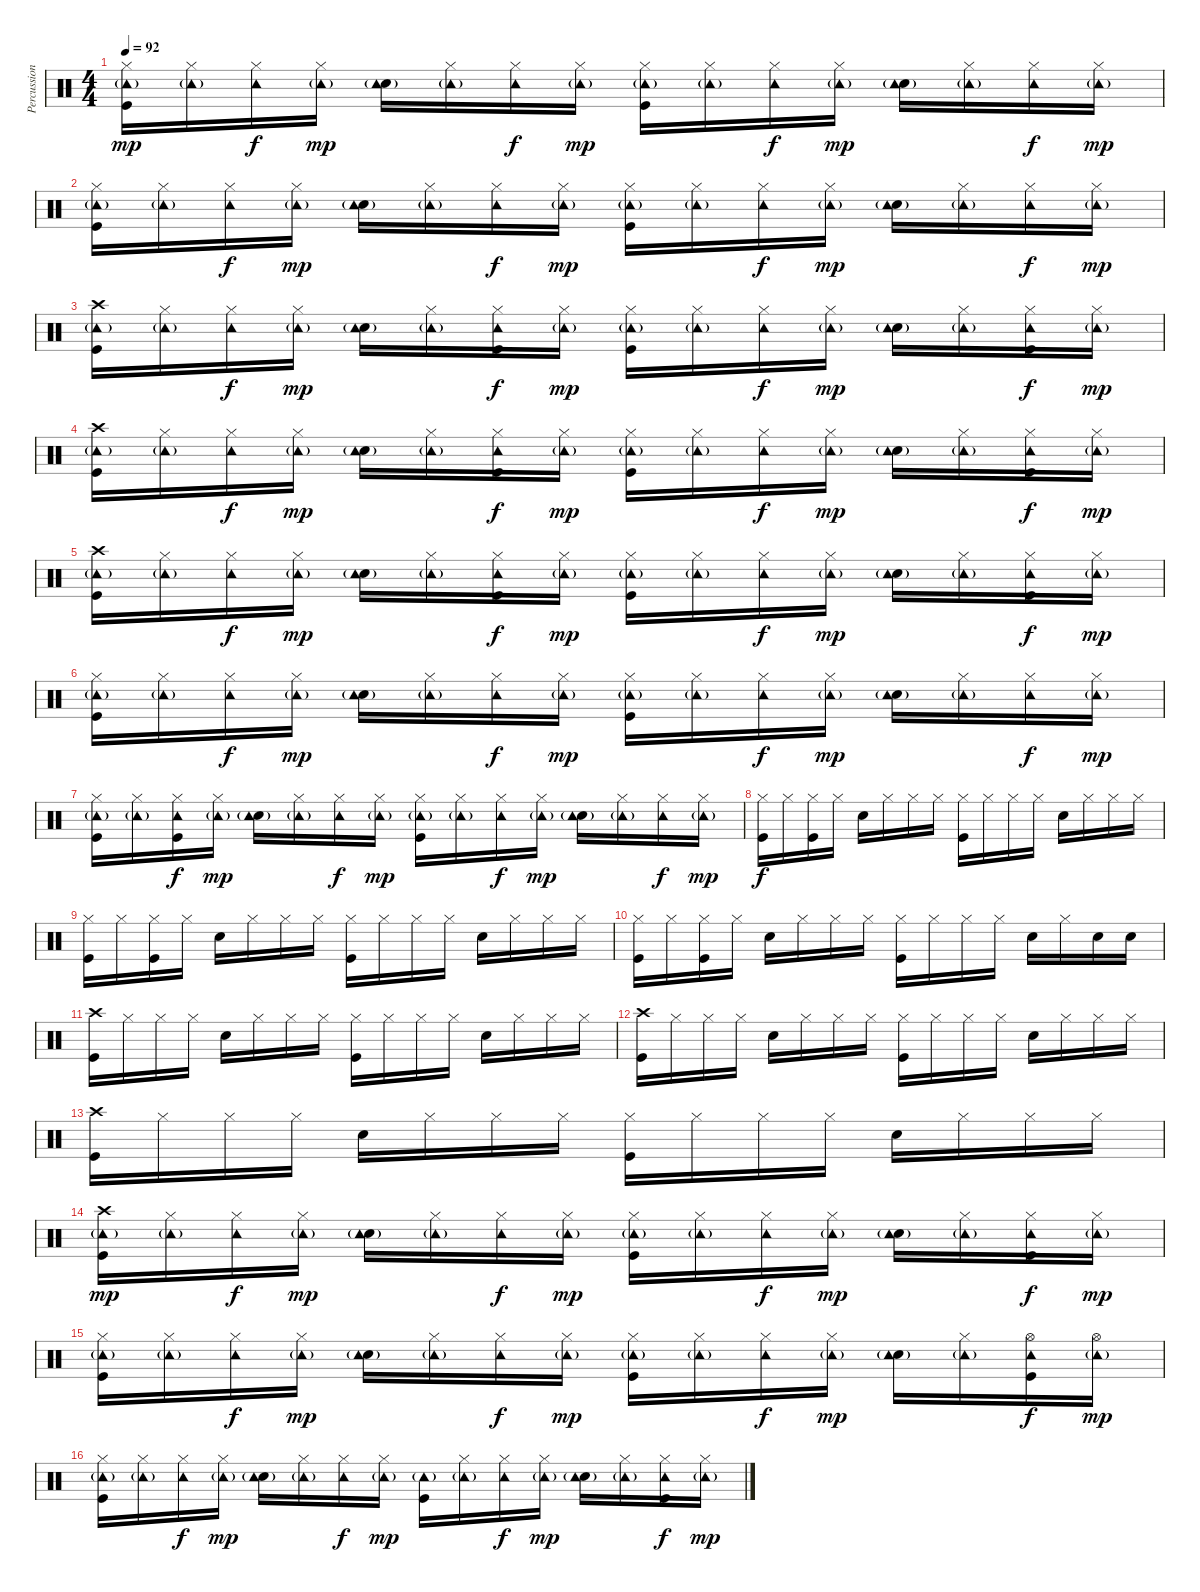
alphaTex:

\track ("Percussion" "Percussion") {instrument percussion}
\staff {score}
\articulation defaults
\ts (4 4)
\tempo 92
\clef neutral
\ks c
("Hi-Hat (closed)" "Kick (hit)" "Tambourine (hit)"{g}).16{dy mp} ("Hi-Hat (closed)" "Tambourine (hit)"{g}).16 ("Hi-Hat (closed)" "Tambourine (hit)").16{dy f} ("Hi-Hat (closed)" "Tambourine (hit)"{g}).16{dy mp} ("Snare (hit) 2" "Tambourine (hit)"{g}).16 ("Hi-Hat (closed)" "Tambourine (hit)"{g}).16 ("Hi-Hat (closed)" "Tambourine (hit)").16{dy f} ("Hi-Hat (closed)" "Tambourine (hit)"{g}).16{dy mp} ("Hi-Hat (closed)" "Kick (hit)" "Tambourine (hit)"{g}).16 ("Hi-Hat (closed)" "Tambourine (hit)"{g}).16 ("Hi-Hat (closed)" "Tambourine (hit)").16{dy f} ("Hi-Hat (closed)" "Tambourine (hit)"{g}).16{dy mp} ("Snare (hit) 2" "Tambourine (hit)"{g}).16 ("Hi-Hat (closed)" "Tambourine (hit)"{g}).16 ("Hi-Hat (closed)" "Tambourine (hit)").16{dy f} ("Hi-Hat (closed)" "Tambourine (hit)"{g}).16{dy mp} |
("Hi-Hat (closed)" "Kick (hit)" "Tambourine (hit)"{g}).16 ("Hi-Hat (closed)" "Tambourine (hit)"{g}).16 ("Hi-Hat (closed)" "Tambourine (hit)").16{dy f} ("Hi-Hat (closed)" "Tambourine (hit)"{g}).16{dy mp} ("Snare (hit) 2" "Tambourine (hit)"{g}).16 ("Hi-Hat (closed)" "Tambourine (hit)"{g}).16 ("Hi-Hat (closed)" "Tambourine (hit)").16{dy f} ("Hi-Hat (closed)" "Tambourine (hit)"{g}).16{dy mp} ("Hi-Hat (closed)" "Kick (hit)" "Tambourine (hit)"{g}).16 ("Hi-Hat (closed)" "Tambourine (hit)"{g}).16 ("Hi-Hat (closed)" "Tambourine (hit)").16{dy f} ("Hi-Hat (closed)" "Tambourine (hit)"{g}).16{dy mp} ("Snare (hit) 2" "Tambourine (hit)"{g}).16 ("Hi-Hat (closed)" "Tambourine (hit)"{g}).16 ("Hi-Hat (closed)" "Tambourine (hit)").16{dy f} ("Hi-Hat (closed)" "Tambourine (hit)"{g}).16{dy mp} |
("Crash high (hit)" "Kick (hit)" "Tambourine (hit)"{g}).16 ("Hi-Hat (closed)" "Tambourine (hit)"{g}).16 ("Hi-Hat (closed)" "Tambourine (hit)").16{dy f} ("Hi-Hat (closed)" "Tambourine (hit)"{g}).16{dy mp} ("Snare (hit) 2" "Tambourine (hit)"{g}).16 ("Hi-Hat (closed)" "Tambourine (hit)"{g}).16 ("Hi-Hat (closed)" "Kick (hit)" "Tambourine (hit)").16{dy f} ("Hi-Hat (closed)" "Tambourine (hit)"{g}).16{dy mp} ("Hi-Hat (closed)" "Kick (hit)" "Tambourine (hit)"{g}).16 ("Hi-Hat (closed)" "Tambourine (hit)"{g}).16 ("Hi-Hat (closed)" "Tambourine (hit)").16{dy f} ("Hi-Hat (closed)" "Tambourine (hit)"{g}).16{dy mp} ("Snare (hit) 2" "Tambourine (hit)"{g}).16 ("Hi-Hat (closed)" "Tambourine (hit)"{g}).16 ("Hi-Hat (closed)" "Kick (hit)" "Tambourine (hit)").16{dy f} ("Hi-Hat (closed)" "Tambourine (hit)"{g}).16{dy mp} |
("Crash high (hit)" "Kick (hit)" "Tambourine (hit)"{g}).16 ("Hi-Hat (closed)" "Tambourine (hit)"{g}).16 ("Hi-Hat (closed)" "Tambourine (hit)").16{dy f} ("Hi-Hat (closed)" "Tambourine (hit)"{g}).16{dy mp} ("Snare (hit) 2" "Tambourine (hit)"{g}).16 ("Hi-Hat (closed)" "Tambourine (hit)"{g}).16 ("Hi-Hat (closed)" "Kick (hit)" "Tambourine (hit)").16{dy f} ("Hi-Hat (closed)" "Tambourine (hit)"{g}).16{dy mp} ("Hi-Hat (closed)" "Kick (hit)" "Tambourine (hit)"{g}).16 ("Hi-Hat (closed)" "Tambourine (hit)"{g}).16 ("Hi-Hat (closed)" "Tambourine (hit)").16{dy f} ("Hi-Hat (closed)" "Tambourine (hit)"{g}).16{dy mp} ("Snare (hit) 2" "Tambourine (hit)"{g}).16 ("Hi-Hat (closed)" "Tambourine (hit)"{g}).16 ("Hi-Hat (closed)" "Kick (hit)" "Tambourine (hit)").16{dy f} ("Hi-Hat (closed)" "Tambourine (hit)"{g}).16{dy mp} |
("Crash high (hit)" "Kick (hit)" "Tambourine (hit)"{g}).16 ("Hi-Hat (closed)" "Tambourine (hit)"{g}).16 ("Hi-Hat (closed)" "Tambourine (hit)").16{dy f} ("Hi-Hat (closed)" "Tambourine (hit)"{g}).16{dy mp} ("Snare (hit) 2" "Tambourine (hit)"{g}).16 ("Hi-Hat (closed)" "Tambourine (hit)"{g}).16 ("Hi-Hat (closed)" "Kick (hit)" "Tambourine (hit)").16{dy f} ("Hi-Hat (closed)" "Tambourine (hit)"{g}).16{dy mp} ("Hi-Hat (closed)" "Kick (hit)" "Tambourine (hit)"{g}).16 ("Hi-Hat (closed)" "Tambourine (hit)"{g}).16 ("Hi-Hat (closed)" "Tambourine (hit)").16{dy f} ("Hi-Hat (closed)" "Tambourine (hit)"{g}).16{dy mp} ("Snare (hit) 2" "Tambourine (hit)"{g}).16 ("Hi-Hat (closed)" "Tambourine (hit)"{g}).16 ("Hi-Hat (closed)" "Kick (hit)" "Tambourine (hit)").16{dy f} ("Hi-Hat (closed)" "Tambourine (hit)"{g}).16{dy mp} |
("Hi-Hat (closed)" "Kick (hit)" "Tambourine (hit)"{g}).16 ("Hi-Hat (closed)" "Tambourine (hit)"{g}).16 ("Hi-Hat (closed)" "Tambourine (hit)").16{dy f} ("Hi-Hat (closed)" "Tambourine (hit)"{g}).16{dy mp} ("Snare (hit) 2" "Tambourine (hit)"{g}).16 ("Hi-Hat (closed)" "Tambourine (hit)"{g}).16 ("Hi-Hat (closed)" "Tambourine (hit)").16{dy f} ("Hi-Hat (closed)" "Tambourine (hit)"{g}).16{dy mp} ("Hi-Hat (closed)" "Kick (hit)" "Tambourine (hit)"{g}).16 ("Hi-Hat (closed)" "Tambourine (hit)"{g}).16 ("Hi-Hat (closed)" "Tambourine (hit)").16{dy f} ("Hi-Hat (closed)" "Tambourine (hit)"{g}).16{dy mp} ("Snare (hit) 2" "Tambourine (hit)"{g}).16 ("Hi-Hat (closed)" "Tambourine (hit)"{g}).16 ("Hi-Hat (closed)" "Tambourine (hit)").16{dy f} ("Hi-Hat (closed)" "Tambourine (hit)"{g}).16{dy mp} |
("Hi-Hat (closed)" "Kick (hit)" "Tambourine (hit)"{g}).16 ("Hi-Hat (closed)" "Tambourine (hit)"{g}).16 ("Hi-Hat (closed)" "Kick (hit)" "Tambourine (hit)").16{dy f} ("Hi-Hat (closed)" "Tambourine (hit)"{g}).16{dy mp} ("Snare (hit) 2" "Tambourine (hit)"{g}).16 ("Hi-Hat (closed)" "Tambourine (hit)"{g}).16 ("Hi-Hat (closed)" "Tambourine (hit)").16{dy f} ("Hi-Hat (closed)" "Tambourine (hit)"{g}).16{dy mp} ("Hi-Hat (closed)" "Kick (hit)" "Tambourine (hit)"{g}).16 ("Hi-Hat (closed)" "Tambourine (hit)"{g}).16 ("Hi-Hat (closed)" "Tambourine (hit)").16{dy f} ("Hi-Hat (closed)" "Tambourine (hit)"{g}).16{dy mp} ("Snare (hit) 2" "Tambourine (hit)"{g}).16 ("Hi-Hat (closed)" "Tambourine (hit)"{g}).16 ("Hi-Hat (closed)" "Tambourine (hit)").16{dy f} ("Hi-Hat (closed)" "Tambourine (hit)"{g}).16{dy mp} |
("Hi-Hat (closed)" "Kick (hit)").16{dy f} "Hi-Hat (closed)".16 ("Hi-Hat (closed)" "Kick (hit)").16 "Hi-Hat (closed)".16 "Snare (hit) 2".16 "Hi-Hat (closed)".16 "Hi-Hat (closed)".16 "Hi-Hat (closed)".16 ("Hi-Hat (closed)" "Kick (hit)").16 "Hi-Hat (closed)".16 "Hi-Hat (closed)".16 "Hi-Hat (closed)".16 "Snare (hit) 2".16 "Hi-Hat (closed)".16 "Hi-Hat (closed)".16 "Hi-Hat (closed)".16 |
("Hi-Hat (closed)" "Kick (hit)").16 "Hi-Hat (closed)".16 ("Hi-Hat (closed)" "Kick (hit)").16 "Hi-Hat (closed)".16 "Snare (hit) 2".16 "Hi-Hat (closed)".16 "Hi-Hat (closed)".16 "Hi-Hat (closed)".16 ("Hi-Hat (closed)" "Kick (hit)").16 "Hi-Hat (closed)".16 "Hi-Hat (closed)".16 "Hi-Hat (closed)".16 "Snare (hit) 2".16 "Hi-Hat (closed)".16 "Hi-Hat (closed)".16 "Hi-Hat (closed)".16 |
("Hi-Hat (closed)" "Kick (hit)").16 "Hi-Hat (closed)".16 ("Hi-Hat (closed)" "Kick (hit)").16 "Hi-Hat (closed)".16 "Snare (hit) 2".16 "Hi-Hat (closed)".16 "Hi-Hat (closed)".16 "Hi-Hat (closed)".16 ("Hi-Hat (closed)" "Kick (hit)").16 "Hi-Hat (closed)".16 "Hi-Hat (closed)".16 "Hi-Hat (closed)".16 "Snare (hit) 2".16 "Hi-Hat (closed)".16 "Snare (hit) 2".16 "Snare (hit) 2".16 |
("Crash high (hit)" "Kick (hit)").16 "Hi-Hat (closed)".16 "Hi-Hat (closed)".16 "Hi-Hat (closed)".16 "Snare (hit) 2".16 "Hi-Hat (closed)".16 "Hi-Hat (closed)".16 "Hi-Hat (closed)".16 ("Hi-Hat (closed)" "Kick (hit)").16 "Hi-Hat (closed)".16 "Hi-Hat (closed)".16 "Hi-Hat (closed)".16 "Snare (hit) 2".16 "Hi-Hat (closed)".16 "Hi-Hat (closed)".16 "Hi-Hat (closed)".16 |
("Crash high (hit)" "Kick (hit)").16 "Hi-Hat (closed)".16 "Hi-Hat (closed)".16 "Hi-Hat (closed)".16 "Snare (hit) 2".16 "Hi-Hat (closed)".16 "Hi-Hat (closed)".16 "Hi-Hat (closed)".16 ("Hi-Hat (closed)" "Kick (hit)").16 "Hi-Hat (closed)".16 "Hi-Hat (closed)".16 "Hi-Hat (closed)".16 "Snare (hit) 2".16 "Hi-Hat (closed)".16 "Hi-Hat (closed)".16 "Hi-Hat (closed)".16 |
("Crash high (hit)" "Kick (hit)").16 "Hi-Hat (closed)".16 "Hi-Hat (closed)".16 "Hi-Hat (closed)".16 "Snare (hit) 2".16 "Hi-Hat (closed)".16 "Hi-Hat (closed)".16 "Hi-Hat (closed)".16 ("Hi-Hat (closed)" "Kick (hit)").16 "Hi-Hat (closed)".16 "Hi-Hat (closed)".16 "Hi-Hat (closed)".16 "Snare (hit) 2".16 "Hi-Hat (closed)".16 "Hi-Hat (closed)".16 "Hi-Hat (closed)".16 |
("Crash high (hit)" "Kick (hit)" "Tambourine (hit)"{g}).16{dy mp} ("Hi-Hat (closed)" "Tambourine (hit)"{g}).16 ("Hi-Hat (closed)" "Tambourine (hit)").16{dy f} ("Hi-Hat (closed)" "Tambourine (hit)"{g}).16{dy mp} ("Snare (hit) 2" "Tambourine (hit)"{g}).16 ("Hi-Hat (closed)" "Tambourine (hit)"{g}).16 ("Hi-Hat (closed)" "Tambourine (hit)").16{dy f} ("Hi-Hat (closed)" "Tambourine (hit)"{g}).16{dy mp} ("Hi-Hat (closed)" "Kick (hit)" "Tambourine (hit)"{g}).16 ("Hi-Hat (closed)" "Tambourine (hit)"{g}).16 ("Hi-Hat (closed)" "Tambourine (hit)").16{dy f} ("Hi-Hat (closed)" "Tambourine (hit)"{g}).16{dy mp} ("Snare (hit) 2" "Tambourine (hit)"{g}).16 ("Hi-Hat (closed)" "Tambourine (hit)"{g}).16 ("Hi-Hat (closed)" "Kick (hit)" "Tambourine (hit)").16{dy f} ("Hi-Hat (closed)" "Tambourine (hit)"{g}).16{dy mp} |
("Hi-Hat (closed)" "Kick (hit)" "Tambourine (hit)"{g}).16 ("Hi-Hat (closed)" "Tambourine (hit)"{g}).16 ("Hi-Hat (closed)" "Tambourine (hit)").16{dy f} ("Hi-Hat (closed)" "Tambourine (hit)"{g}).16{dy mp} ("Snare (hit) 2" "Tambourine (hit)"{g}).16 ("Hi-Hat (closed)" "Tambourine (hit)"{g}).16 ("Hi-Hat (closed)" "Tambourine (hit)").16{dy f} ("Hi-Hat (closed)" "Tambourine (hit)"{g}).16{dy mp} ("Hi-Hat (closed)" "Kick (hit)" "Tambourine (hit)"{g}).16 ("Hi-Hat (closed)" "Tambourine (hit)"{g}).16 ("Hi-Hat (closed)" "Tambourine (hit)").16{dy f} ("Hi-Hat (closed)" "Tambourine (hit)"{g}).16{dy mp} ("Snare (hit) 2" "Tambourine (hit)"{g}).16 ("Hi-Hat (closed)" "Tambourine (hit)"{g}).16 ("Hi-Hat (open)" "Kick (hit)" "Tambourine (hit)").16{dy f} ("Hi-Hat (open)" "Tambourine (hit)"{g}).16{dy mp} |
("Hi-Hat (closed)" "Kick (hit)" "Tambourine (hit)"{g}).16 ("Hi-Hat (closed)" "Tambourine (hit)"{g}).16 ("Hi-Hat (closed)" "Tambourine (hit)").16{dy f} ("Hi-Hat (closed)" "Tambourine (hit)"{g}).16{dy mp} ("Snare (hit) 2" "Tambourine (hit)"{g}).16 ("Hi-Hat (closed)" "Tambourine (hit)"{g}).16 ("Hi-Hat (closed)" "Tambourine (hit)").16{dy f} ("Hi-Hat (closed)" "Tambourine (hit)"{g}).16{dy mp} ("Kick (hit)" "Tambourine (hit)"{g}).16 ("Hi-Hat (closed)" "Tambourine (hit)"{g}).16 ("Hi-Hat (closed)" "Tambourine (hit)").16{dy f} ("Hi-Hat (closed)" "Tambourine (hit)"{g}).16{dy mp} ("Snare (hit) 2" "Tambourine (hit)"{g}).16 ("Hi-Hat (closed)" "Tambourine (hit)"{g}).16 ("Hi-Hat (closed)" "Kick (hit)" "Tambourine (hit)").16{dy f} ("Hi-Hat (closed)" "Tambourine (hit)"{g}).16{dy mp}
